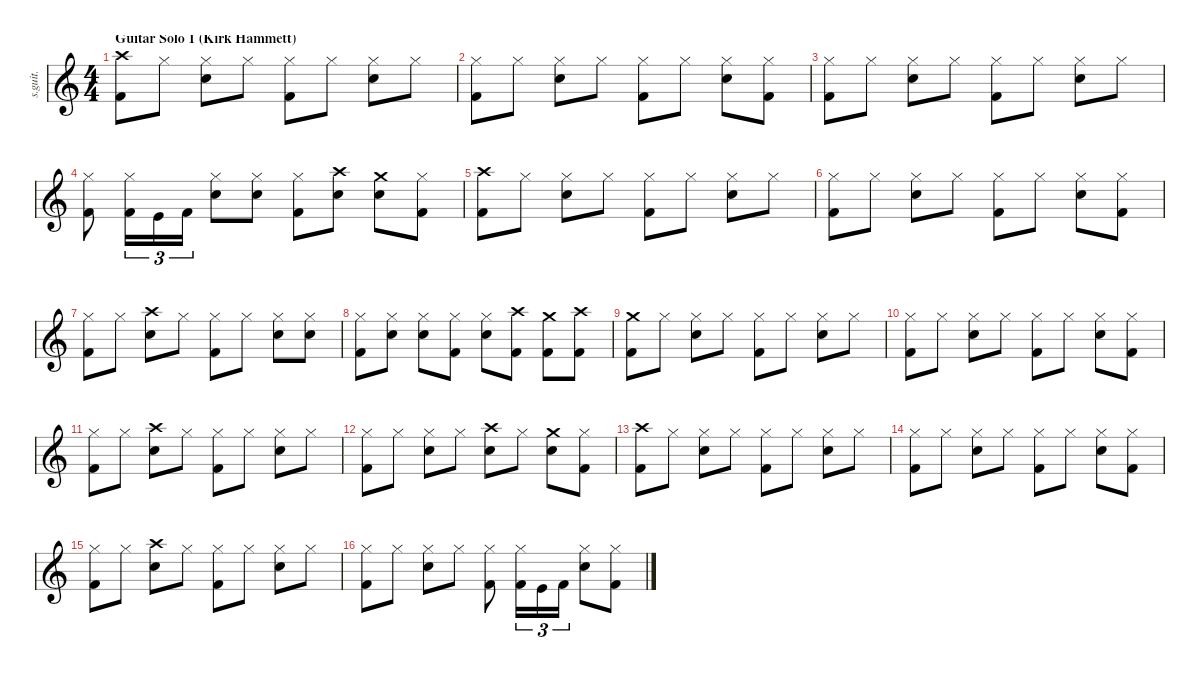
\defaultSystemsLayout 4
\hideDynamics
\bracketExtendMode nobrackets
\track ("Drumkit" "s.guit.") {instrument percussion}
\staff {score}
\articulation defaults
\ts (4 4)
\section ("" "Guitar Solo 1 (Kirk Hammett)")
\tempo (130 hide)
\clef g2
\ks c
("Crash high (hit)" "Kick (hit) 2").8{lyrics (0 "") lyrics (1 "") lyrics (2 "") lyrics (3 "") lyrics (4 "") dy f} "Hi-Hat (closed)".8{lyrics (0 "") lyrics (1 "") lyrics (2 "") lyrics (3 "") lyrics (4 "")} ("Hi-Hat (closed)" "Snare (hit) 2").8{lyrics (0 "") lyrics (1 "") lyrics (2 "") lyrics (3 "") lyrics (4 "")} "Hi-Hat (closed)".8{lyrics (0 "") lyrics (1 "") lyrics (2 "") lyrics (3 "") lyrics (4 "")} ("Hi-Hat (closed)" "Kick (hit) 2").8{lyrics (0 "") lyrics (1 "") lyrics (2 "") lyrics (3 "") lyrics (4 "")} "Hi-Hat (closed)".8{lyrics (0 "") lyrics (1 "") lyrics (2 "") lyrics (3 "") lyrics (4 "")} ("Hi-Hat (closed)" "Snare (hit) 2").8{lyrics (0 "") lyrics (1 "") lyrics (2 "") lyrics (3 "") lyrics (4 "")} "Hi-Hat (closed)".8{lyrics (0 "") lyrics (1 "") lyrics (2 "") lyrics (3 "") lyrics (4 "")} |
("Hi-Hat (closed)" "Kick (hit) 2").8{lyrics (0 "") lyrics (1 "") lyrics (2 "") lyrics (3 "") lyrics (4 "")} "Hi-Hat (closed)".8{lyrics (0 "") lyrics (1 "") lyrics (2 "") lyrics (3 "") lyrics (4 "")} ("Hi-Hat (closed)" "Snare (hit) 2").8{lyrics (0 "") lyrics (1 "") lyrics (2 "") lyrics (3 "") lyrics (4 "")} "Hi-Hat (closed)".8{lyrics (0 "") lyrics (1 "") lyrics (2 "") lyrics (3 "") lyrics (4 "")} ("Hi-Hat (closed)" "Kick (hit) 2").8{lyrics (0 "") lyrics (1 "") lyrics (2 "") lyrics (3 "") lyrics (4 "")} "Hi-Hat (closed)".8{lyrics (0 "") lyrics (1 "") lyrics (2 "") lyrics (3 "") lyrics (4 "")} ("Hi-Hat (closed)" "Snare (hit) 2").8{lyrics (0 "") lyrics (1 "") lyrics (2 "") lyrics (3 "") lyrics (4 "")} ("Hi-Hat (closed)" "Kick (hit) 2").8{lyrics (0 "") lyrics (1 "") lyrics (2 "") lyrics (3 "") lyrics (4 "")} |
("Hi-Hat (closed)" "Kick (hit) 2").8{lyrics (0 "") lyrics (1 "") lyrics (2 "") lyrics (3 "") lyrics (4 "")} "Hi-Hat (closed)".8{lyrics (0 "") lyrics (1 "") lyrics (2 "") lyrics (3 "") lyrics (4 "")} ("Hi-Hat (closed)" "Snare (hit) 2").8{lyrics (0 "") lyrics (1 "") lyrics (2 "") lyrics (3 "") lyrics (4 "")} "Hi-Hat (closed)".8{lyrics (0 "") lyrics (1 "") lyrics (2 "") lyrics (3 "") lyrics (4 "")} ("Hi-Hat (closed)" "Kick (hit) 2").8{lyrics (0 "") lyrics (1 "") lyrics (2 "") lyrics (3 "") lyrics (4 "")} "Hi-Hat (closed)".8{lyrics (0 "") lyrics (1 "") lyrics (2 "") lyrics (3 "") lyrics (4 "")} ("Hi-Hat (closed)" "Snare (hit) 2").8{lyrics (0 "") lyrics (1 "") lyrics (2 "") lyrics (3 "") lyrics (4 "")} "Hi-Hat (closed)".8{lyrics (0 "") lyrics (1 "") lyrics (2 "") lyrics (3 "") lyrics (4 "")} |
("Hi-Hat (closed)" "Kick (hit) 2").8{lyrics (0 "") lyrics (1 "") lyrics (2 "") lyrics (3 "") lyrics (4 "")} ("Hi-Hat (closed)" "Kick (hit) 2").16{tu (3 2) lyrics (0 "") lyrics (1 "") lyrics (2 "") lyrics (3 "") lyrics (4 "")} "Kick (hit)".16{tu (3 2) lyrics (0 "") lyrics (1 "") lyrics (2 "") lyrics (3 "") lyrics (4 "")} "Kick (hit) 2".16{tu (3 2) lyrics (0 "") lyrics (1 "") lyrics (2 "") lyrics (3 "") lyrics (4 "")} ("Hi-Hat (closed)" "Snare (hit) 2").8{lyrics (0 "") lyrics (1 "") lyrics (2 "") lyrics (3 "") lyrics (4 "")} ("Hi-Hat (closed)" "Snare (hit) 2").8{lyrics (0 "") lyrics (1 "") lyrics (2 "") lyrics (3 "") lyrics (4 "")} ("Hi-Hat (closed)" "Kick (hit) 2").8{lyrics (0 "") lyrics (1 "") lyrics (2 "") lyrics (3 "") lyrics (4 "")} ("Crash high (hit)" "Snare (hit) 2").8{lyrics (0 "") lyrics (1 "") lyrics (2 "") lyrics (3 "") lyrics (4 "")} ("Crash medium (hit)" "Snare (hit) 2").8{lyrics (0 "") lyrics (1 "") lyrics (2 "") lyrics (3 "") lyrics (4 "")} ("Hi-Hat (closed)" "Kick (hit) 2").8{lyrics (0 "") lyrics (1 "") lyrics (2 "") lyrics (3 "") lyrics (4 "")} |
("Crash high (hit)" "Kick (hit) 2").8{lyrics (0 "") lyrics (1 "") lyrics (2 "") lyrics (3 "") lyrics (4 "")} "Hi-Hat (closed)".8{lyrics (0 "") lyrics (1 "") lyrics (2 "") lyrics (3 "") lyrics (4 "")} ("Hi-Hat (closed)" "Snare (hit) 2").8{lyrics (0 "") lyrics (1 "") lyrics (2 "") lyrics (3 "") lyrics (4 "")} "Hi-Hat (closed)".8{lyrics (0 "") lyrics (1 "") lyrics (2 "") lyrics (3 "") lyrics (4 "")} ("Hi-Hat (closed)" "Kick (hit) 2").8{lyrics (0 "") lyrics (1 "") lyrics (2 "") lyrics (3 "") lyrics (4 "")} "Hi-Hat (closed)".8{lyrics (0 "") lyrics (1 "") lyrics (2 "") lyrics (3 "") lyrics (4 "")} ("Hi-Hat (closed)" "Snare (hit) 2").8{lyrics (0 "") lyrics (1 "") lyrics (2 "") lyrics (3 "") lyrics (4 "")} "Hi-Hat (closed)".8{lyrics (0 "") lyrics (1 "") lyrics (2 "") lyrics (3 "") lyrics (4 "")} |
("Hi-Hat (closed)" "Kick (hit) 2").8{lyrics (0 "") lyrics (1 "") lyrics (2 "") lyrics (3 "") lyrics (4 "")} "Hi-Hat (closed)".8{lyrics (0 "") lyrics (1 "") lyrics (2 "") lyrics (3 "") lyrics (4 "")} ("Hi-Hat (closed)" "Snare (hit) 2").8{lyrics (0 "") lyrics (1 "") lyrics (2 "") lyrics (3 "") lyrics (4 "")} "Hi-Hat (closed)".8{lyrics (0 "") lyrics (1 "") lyrics (2 "") lyrics (3 "") lyrics (4 "")} ("Hi-Hat (closed)" "Kick (hit) 2").8{lyrics (0 "") lyrics (1 "") lyrics (2 "") lyrics (3 "") lyrics (4 "")} "Hi-Hat (closed)".8{lyrics (0 "") lyrics (1 "") lyrics (2 "") lyrics (3 "") lyrics (4 "")} ("Hi-Hat (closed)" "Snare (hit) 2").8{lyrics (0 "") lyrics (1 "") lyrics (2 "") lyrics (3 "") lyrics (4 "")} ("Hi-Hat (closed)" "Kick (hit) 2").8{lyrics (0 "") lyrics (1 "") lyrics (2 "") lyrics (3 "") lyrics (4 "")} |
("Hi-Hat (closed)" "Kick (hit) 2").8{lyrics (0 "") lyrics (1 "") lyrics (2 "") lyrics (3 "") lyrics (4 "")} "Hi-Hat (closed)".8{lyrics (0 "") lyrics (1 "") lyrics (2 "") lyrics (3 "") lyrics (4 "")} ("Crash high (hit)" "Snare (hit) 2").8{lyrics (0 "") lyrics (1 "") lyrics (2 "") lyrics (3 "") lyrics (4 "")} "Hi-Hat (closed)".8{lyrics (0 "") lyrics (1 "") lyrics (2 "") lyrics (3 "") lyrics (4 "")} ("Hi-Hat (closed)" "Kick (hit) 2").8{lyrics (0 "") lyrics (1 "") lyrics (2 "") lyrics (3 "") lyrics (4 "")} "Hi-Hat (closed)".8{lyrics (0 "") lyrics (1 "") lyrics (2 "") lyrics (3 "") lyrics (4 "")} ("Hi-Hat (closed)" "Snare (hit) 2").8{lyrics (0 "") lyrics (1 "") lyrics (2 "") lyrics (3 "") lyrics (4 "")} ("Hi-Hat (closed)" "Snare (hit) 2").8{lyrics (0 "") lyrics (1 "") lyrics (2 "") lyrics (3 "") lyrics (4 "")} |
("Hi-Hat (closed)" "Kick (hit) 2").8{lyrics (0 "") lyrics (1 "") lyrics (2 "") lyrics (3 "") lyrics (4 "")} ("Hi-Hat (closed)" "Snare (hit) 2").8{lyrics (0 "") lyrics (1 "") lyrics (2 "") lyrics (3 "") lyrics (4 "")} ("Hi-Hat (closed)" "Snare (hit) 2").8{lyrics (0 "") lyrics (1 "") lyrics (2 "") lyrics (3 "") lyrics (4 "")} ("Hi-Hat (closed)" "Kick (hit) 2").8{lyrics (0 "") lyrics (1 "") lyrics (2 "") lyrics (3 "") lyrics (4 "")} ("Hi-Hat (closed)" "Snare (hit) 2").8{lyrics (0 "") lyrics (1 "") lyrics (2 "") lyrics (3 "") lyrics (4 "")} ("Crash high (hit)" "Kick (hit) 2").8{lyrics (0 "") lyrics (1 "") lyrics (2 "") lyrics (3 "") lyrics (4 "")} ("Crash medium (hit)" "Kick (hit) 2").8{lyrics (0 "") lyrics (1 "") lyrics (2 "") lyrics (3 "") lyrics (4 "")} ("Crash high (hit)" "Kick (hit) 2").8{lyrics (0 "") lyrics (1 "") lyrics (2 "") lyrics (3 "") lyrics (4 "")} |
("Crash medium (hit)" "Kick (hit) 2").8{lyrics (0 "") lyrics (1 "") lyrics (2 "") lyrics (3 "") lyrics (4 "")} "Hi-Hat (closed)".8{lyrics (0 "") lyrics (1 "") lyrics (2 "") lyrics (3 "") lyrics (4 "")} ("Hi-Hat (closed)" "Snare (hit) 2").8{lyrics (0 "") lyrics (1 "") lyrics (2 "") lyrics (3 "") lyrics (4 "")} "Hi-Hat (closed)".8{lyrics (0 "") lyrics (1 "") lyrics (2 "") lyrics (3 "") lyrics (4 "")} ("Hi-Hat (closed)" "Kick (hit) 2").8{lyrics (0 "") lyrics (1 "") lyrics (2 "") lyrics (3 "") lyrics (4 "")} "Hi-Hat (closed)".8{lyrics (0 "") lyrics (1 "") lyrics (2 "") lyrics (3 "") lyrics (4 "")} ("Hi-Hat (closed)" "Snare (hit) 2").8{lyrics (0 "") lyrics (1 "") lyrics (2 "") lyrics (3 "") lyrics (4 "")} "Hi-Hat (closed)".8{lyrics (0 "") lyrics (1 "") lyrics (2 "") lyrics (3 "") lyrics (4 "")} |
("Hi-Hat (closed)" "Kick (hit) 2").8{lyrics (0 "") lyrics (1 "") lyrics (2 "") lyrics (3 "") lyrics (4 "")} "Hi-Hat (closed)".8{lyrics (0 "") lyrics (1 "") lyrics (2 "") lyrics (3 "") lyrics (4 "")} ("Hi-Hat (closed)" "Snare (hit) 2").8{lyrics (0 "") lyrics (1 "") lyrics (2 "") lyrics (3 "") lyrics (4 "")} "Hi-Hat (closed)".8{lyrics (0 "") lyrics (1 "") lyrics (2 "") lyrics (3 "") lyrics (4 "")} ("Hi-Hat (closed)" "Kick (hit) 2").8{lyrics (0 "") lyrics (1 "") lyrics (2 "") lyrics (3 "") lyrics (4 "")} "Hi-Hat (closed)".8{lyrics (0 "") lyrics (1 "") lyrics (2 "") lyrics (3 "") lyrics (4 "")} ("Hi-Hat (closed)" "Snare (hit) 2").8{lyrics (0 "") lyrics (1 "") lyrics (2 "") lyrics (3 "") lyrics (4 "")} ("Hi-Hat (closed)" "Kick (hit) 2").8{lyrics (0 "") lyrics (1 "") lyrics (2 "") lyrics (3 "") lyrics (4 "")} |
("Hi-Hat (closed)" "Kick (hit) 2").8{lyrics (0 "") lyrics (1 "") lyrics (2 "") lyrics (3 "") lyrics (4 "")} "Hi-Hat (closed)".8{lyrics (0 "") lyrics (1 "") lyrics (2 "") lyrics (3 "") lyrics (4 "")} ("Crash high (hit)" "Snare (hit) 2").8{lyrics (0 "") lyrics (1 "") lyrics (2 "") lyrics (3 "") lyrics (4 "")} "Hi-Hat (closed)".8{lyrics (0 "") lyrics (1 "") lyrics (2 "") lyrics (3 "") lyrics (4 "")} ("Hi-Hat (closed)" "Kick (hit) 2").8{lyrics (0 "") lyrics (1 "") lyrics (2 "") lyrics (3 "") lyrics (4 "")} "Hi-Hat (closed)".8{lyrics (0 "") lyrics (1 "") lyrics (2 "") lyrics (3 "") lyrics (4 "")} ("Hi-Hat (closed)" "Snare (hit) 2").8{lyrics (0 "") lyrics (1 "") lyrics (2 "") lyrics (3 "") lyrics (4 "")} "Hi-Hat (closed)".8{lyrics (0 "") lyrics (1 "") lyrics (2 "") lyrics (3 "") lyrics (4 "")} |
("Hi-Hat (closed)" "Kick (hit) 2").8{lyrics (0 "") lyrics (1 "") lyrics (2 "") lyrics (3 "") lyrics (4 "")} "Hi-Hat (closed)".8{lyrics (0 "") lyrics (1 "") lyrics (2 "") lyrics (3 "") lyrics (4 "")} ("Hi-Hat (closed)" "Snare (hit) 2").8{lyrics (0 "") lyrics (1 "") lyrics (2 "") lyrics (3 "") lyrics (4 "")} "Hi-Hat (closed)".8{lyrics (0 "") lyrics (1 "") lyrics (2 "") lyrics (3 "") lyrics (4 "")} ("Crash high (hit)" "Snare (hit) 2").8{lyrics (0 "") lyrics (1 "") lyrics (2 "") lyrics (3 "") lyrics (4 "")} "Hi-Hat (closed)".8{lyrics (0 "") lyrics (1 "") lyrics (2 "") lyrics (3 "") lyrics (4 "")} ("Crash medium (hit)" "Snare (hit) 2").8{lyrics (0 "") lyrics (1 "") lyrics (2 "") lyrics (3 "") lyrics (4 "")} ("Hi-Hat (closed)" "Kick (hit) 2").8{lyrics (0 "") lyrics (1 "") lyrics (2 "") lyrics (3 "") lyrics (4 "")} |
("Crash high (hit)" "Kick (hit) 2").8{lyrics (0 "") lyrics (1 "") lyrics (2 "") lyrics (3 "") lyrics (4 "")} "Hi-Hat (closed)".8{lyrics (0 "") lyrics (1 "") lyrics (2 "") lyrics (3 "") lyrics (4 "")} ("Hi-Hat (closed)" "Snare (hit) 2").8{lyrics (0 "") lyrics (1 "") lyrics (2 "") lyrics (3 "") lyrics (4 "")} "Hi-Hat (closed)".8{lyrics (0 "") lyrics (1 "") lyrics (2 "") lyrics (3 "") lyrics (4 "")} ("Hi-Hat (closed)" "Kick (hit) 2").8{lyrics (0 "") lyrics (1 "") lyrics (2 "") lyrics (3 "") lyrics (4 "")} "Hi-Hat (closed)".8{lyrics (0 "") lyrics (1 "") lyrics (2 "") lyrics (3 "") lyrics (4 "")} ("Hi-Hat (closed)" "Snare (hit) 2").8{lyrics (0 "") lyrics (1 "") lyrics (2 "") lyrics (3 "") lyrics (4 "")} "Hi-Hat (closed)".8{lyrics (0 "") lyrics (1 "") lyrics (2 "") lyrics (3 "") lyrics (4 "")} |
("Hi-Hat (closed)" "Kick (hit) 2").8{lyrics (0 "") lyrics (1 "") lyrics (2 "") lyrics (3 "") lyrics (4 "")} "Hi-Hat (closed)".8{lyrics (0 "") lyrics (1 "") lyrics (2 "") lyrics (3 "") lyrics (4 "")} ("Hi-Hat (closed)" "Snare (hit) 2").8{lyrics (0 "") lyrics (1 "") lyrics (2 "") lyrics (3 "") lyrics (4 "")} "Hi-Hat (closed)".8{lyrics (0 "") lyrics (1 "") lyrics (2 "") lyrics (3 "") lyrics (4 "")} ("Hi-Hat (closed)" "Kick (hit) 2").8{lyrics (0 "") lyrics (1 "") lyrics (2 "") lyrics (3 "") lyrics (4 "")} "Hi-Hat (closed)".8{lyrics (0 "") lyrics (1 "") lyrics (2 "") lyrics (3 "") lyrics (4 "")} ("Hi-Hat (closed)" "Snare (hit) 2").8{lyrics (0 "") lyrics (1 "") lyrics (2 "") lyrics (3 "") lyrics (4 "")} ("Hi-Hat (closed)" "Kick (hit) 2").8{lyrics (0 "") lyrics (1 "") lyrics (2 "") lyrics (3 "") lyrics (4 "")} |
("Hi-Hat (closed)" "Kick (hit) 2").8{lyrics (0 "") lyrics (1 "") lyrics (2 "") lyrics (3 "") lyrics (4 "")} "Hi-Hat (closed)".8{lyrics (0 "") lyrics (1 "") lyrics (2 "") lyrics (3 "") lyrics (4 "")} ("Crash high (hit)" "Snare (hit) 2").8{lyrics (0 "") lyrics (1 "") lyrics (2 "") lyrics (3 "") lyrics (4 "")} "Hi-Hat (closed)".8{lyrics (0 "") lyrics (1 "") lyrics (2 "") lyrics (3 "") lyrics (4 "")} ("Hi-Hat (closed)" "Kick (hit) 2").8{lyrics (0 "") lyrics (1 "") lyrics (2 "") lyrics (3 "") lyrics (4 "")} "Hi-Hat (closed)".8{lyrics (0 "") lyrics (1 "") lyrics (2 "") lyrics (3 "") lyrics (4 "")} ("Hi-Hat (closed)" "Snare (hit) 2").8{lyrics (0 "") lyrics (1 "") lyrics (2 "") lyrics (3 "") lyrics (4 "")} "Hi-Hat (closed)".8{lyrics (0 "") lyrics (1 "") lyrics (2 "") lyrics (3 "") lyrics (4 "")} |
("Hi-Hat (closed)" "Kick (hit) 2").8{lyrics (0 "") lyrics (1 "") lyrics (2 "") lyrics (3 "") lyrics (4 "")} "Hi-Hat (closed)".8{lyrics (0 "") lyrics (1 "") lyrics (2 "") lyrics (3 "") lyrics (4 "")} ("Hi-Hat (closed)" "Snare (hit) 2").8{lyrics (0 "") lyrics (1 "") lyrics (2 "") lyrics (3 "") lyrics (4 "")} "Hi-Hat (closed)".8{lyrics (0 "") lyrics (1 "") lyrics (2 "") lyrics (3 "") lyrics (4 "")} ("Hi-Hat (closed)" "Kick (hit) 2").8{lyrics (0 "") lyrics (1 "") lyrics (2 "") lyrics (3 "") lyrics (4 "")} ("Hi-Hat (closed)" "Kick (hit) 2").16{tu (3 2) lyrics (0 "") lyrics (1 "") lyrics (2 "") lyrics (3 "") lyrics (4 "")} "Kick (hit)".16{tu (3 2) lyrics (0 "") lyrics (1 "") lyrics (2 "") lyrics (3 "") lyrics (4 "")} "Kick (hit) 2".16{tu (3 2) lyrics (0 "") lyrics (1 "") lyrics (2 "") lyrics (3 "") lyrics (4 "")} ("Hi-Hat (closed)" "Snare (hit) 2").8{lyrics (0 "") lyrics (1 "") lyrics (2 "") lyrics (3 "") lyrics (4 "")} ("Hi-Hat (closed)" "Kick (hit) 2").8{lyrics (0 "") lyrics (1 "") lyrics (2 "") lyrics (3 "") lyrics (4 "")}
